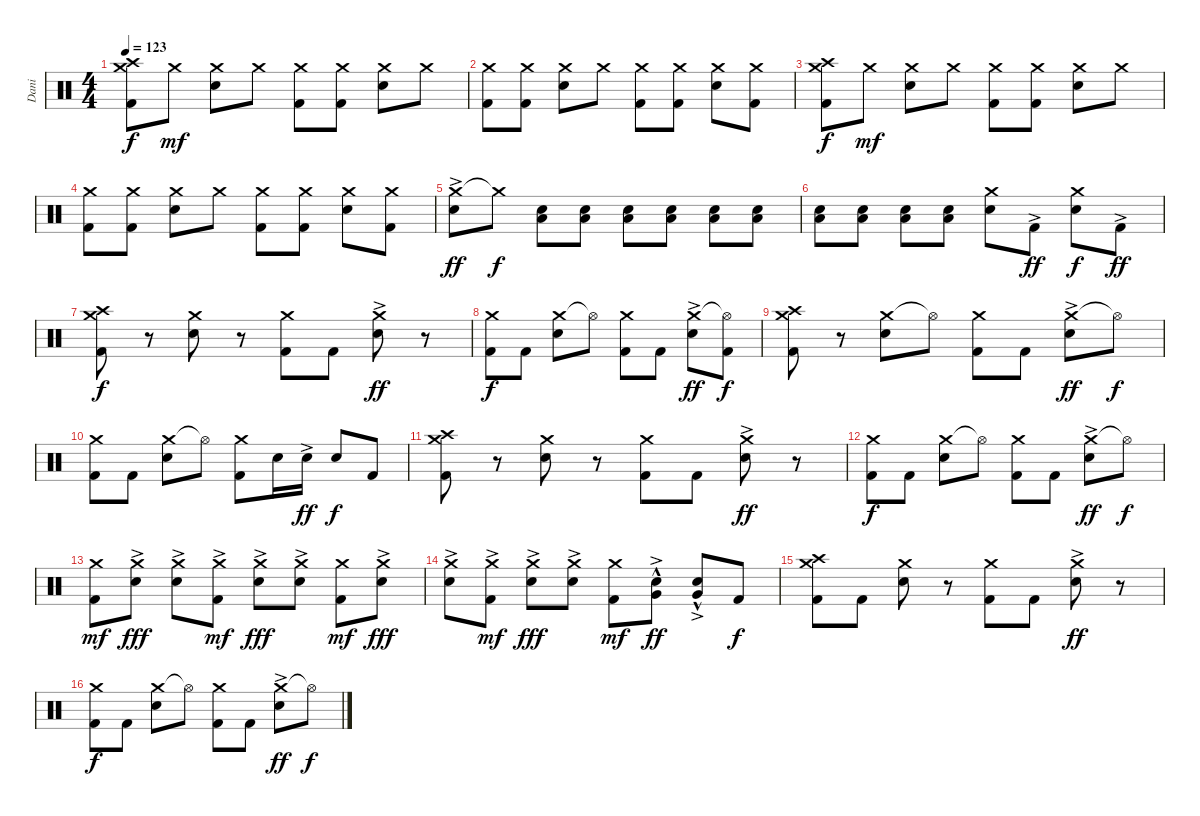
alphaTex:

\track ("Dani" "Dani") {instrument percussion}
\staff {score}
\articulation defaults
\ts (4 4)
\tempo 123
\clef neutral
\ks c
("Crash high (hit)" "Crash medium (hit)" "Kick (hit) 2").8{dy f} "Crash medium (hit)".8{dy mf} ("Crash medium (hit)" "Snare (hit) 2").8 "Crash medium (hit)".8 ("Crash medium (hit)" "Kick (hit) 2").8 ("Crash medium (hit)" "Kick (hit) 2").8 ("Crash medium (hit)" "Snare (hit) 2").8 "Crash medium (hit)".8 |
("Crash medium (hit)" "Kick (hit) 2").8 ("Crash medium (hit)" "Kick (hit) 2").8 ("Crash medium (hit)" "Snare (hit) 2").8 "Crash medium (hit)".8 ("Crash medium (hit)" "Kick (hit) 2").8 ("Crash medium (hit)" "Kick (hit) 2").8 ("Crash medium (hit)" "Snare (hit) 2").8 ("Crash medium (hit)" "Kick (hit) 2").8 |
("Crash high (hit)" "Crash medium (hit)" "Kick (hit) 2").8{dy f} "Crash medium (hit)".8{dy mf} ("Crash medium (hit)" "Snare (hit) 2").8 "Crash medium (hit)".8 ("Crash medium (hit)" "Kick (hit) 2").8 ("Crash medium (hit)" "Kick (hit) 2").8 ("Crash medium (hit)" "Snare (hit) 2").8 "Crash medium (hit)".8 |
("Crash medium (hit)" "Kick (hit) 2").8 ("Crash medium (hit)" "Kick (hit) 2").8 ("Crash medium (hit)" "Snare (hit) 2").8 "Crash medium (hit)".8 ("Crash medium (hit)" "Kick (hit) 2").8 ("Crash medium (hit)" "Kick (hit) 2").8 ("Crash medium (hit)" "Snare (hit) 2").8 ("Crash medium (hit)" "Kick (hit) 2").8 |
("Crash medium (hit)"{ac} "Snare (hit) 2"{ac}).8{dy ff} "Crash medium (hit)"{t}.8{dy f} ("Low Floor Tom (hit)" "Snare (hit) 2").8 ("Low Floor Tom (hit)" "Snare (hit) 2").8 ("Low Floor Tom (hit)" "Snare (hit) 2").8 ("Low Floor Tom (hit)" "Snare (hit) 2").8 ("Low Floor Tom (hit)" "Snare (hit) 2").8 ("Low Floor Tom (hit)" "Snare (hit) 2").8 |
("Low Floor Tom (hit)" "Snare (hit) 2").8 ("Low Floor Tom (hit)" "Snare (hit) 2").8 ("Low Floor Tom (hit)" "Snare (hit) 2").8 ("Low Floor Tom (hit)" "Snare (hit) 2").8 ("Crash medium (hit)" "Snare (hit) 2").8 "Kick (hit) 2"{ac}.8{dy ff} ("Crash medium (hit)" "Snare (hit) 2").8{dy f} "Kick (hit) 2"{ac}.8{dy ff} |
("Crash high (hit)" "Crash medium (hit)" "Kick (hit) 2").8{dy f} r.8 ("Crash medium (hit)" "Snare (hit) 2").8 r.8 ("Crash medium (hit)" "Kick (hit) 2").8 "Kick (hit) 2".8 ("Crash medium (hit)" "Snare (hit) 2"{ac}).8{dy ff} r.8 |
("Crash medium (hit)" "Kick (hit) 2").8{dy f} "Kick (hit) 2".8 ("Crash medium (hit)" "Snare (hit) 2").8 "Hi-Hat (open)"{t}.8 ("Crash medium (hit)" "Kick (hit) 2").8 "Kick (hit) 2".8 ("Crash medium (hit)" "Snare (hit) 2"{ac}).8{dy ff} ("Hi-Hat (open)"{t} "Kick (hit) 2").8{dy f} |
("Crash high (hit)" "Crash medium (hit)" "Kick (hit) 2").8 r.8 ("Crash medium (hit)" "Snare (hit) 2").8 "Hi-Hat (open)"{t}.8 ("Crash medium (hit)" "Kick (hit) 2").8 "Kick (hit) 2".8 ("Crash medium (hit)" "Snare (hit) 2"{ac}).8{dy ff} "Hi-Hat (open)"{t}.8{dy f} |
("Crash medium (hit)" "Kick (hit) 2").8 "Kick (hit) 2".8 ("Crash medium (hit)" "Snare (hit) 2").8 "Hi-Hat (open)"{t}.8 ("Crash medium (hit)" "Kick (hit) 2").8 "Snare (hit) 2".16 "Snare (hit) 2"{ac}.16{dy ff} "Snare (hit) 2".8{dy f} "Kick (hit) 2".8 |
("Crash high (hit)" "Crash medium (hit)" "Kick (hit) 2").8 r.8 ("Crash medium (hit)" "Snare (hit) 2").8 r.8 ("Crash medium (hit)" "Kick (hit) 2").8 "Kick (hit) 2".8 ("Crash medium (hit)" "Snare (hit) 2"{ac}).8{dy ff} r.8 |
("Crash medium (hit)" "Kick (hit) 2").8{dy f} "Kick (hit) 2".8 ("Crash medium (hit)" "Snare (hit) 2").8 "Hi-Hat (open)"{t}.8 ("Crash medium (hit)" "Kick (hit) 2").8 "Kick (hit) 2".8 ("Crash medium (hit)" "Snare (hit) 2"{ac}).8{dy ff} "Hi-Hat (open)"{t}.8{dy f} |
("Crash medium (hit)" "Kick (hit) 2").8{dy mf} ("Crash medium (hit)" "Snare (hit) 2"{ac}).8{dy fff} ("Crash medium (hit)" "Snare (hit) 2"{ac}).8 ("Crash medium (hit)" "Kick (hit) 2"{ac}).8{dy mf} ("Crash medium (hit)" "Snare (hit) 2"{ac}).8{dy fff} ("Crash medium (hit)" "Snare (hit) 2"{ac}).8 ("Crash medium (hit)" "Kick (hit) 2").8{dy mf} ("Crash medium (hit)" "Snare (hit) 2"{ac}).8{dy fff} |
("Crash medium (hit)" "Snare (hit) 2"{ac}).8 ("Crash medium (hit)" "Kick (hit) 2"{ac}).8{dy mf} ("Crash medium (hit)" "Snare (hit) 2"{ac}).8{dy fff} ("Crash medium (hit)" "Snare (hit) 2"{ac}).8 ("Crash medium (hit)" "Kick (hit) 2").8{dy mf} ("Very Low Tom (hit)"{hac} "Snare (hit) 2"{ac}).8{dy ff} ("Very Low Tom (hit)"{hac} "Snare (hit) 2"{ac}).8 "Kick (hit) 2".8{dy f} |
("Crash high (hit)" "Crash medium (hit)" "Kick (hit) 2").8 "Kick (hit) 2".8 ("Crash medium (hit)" "Snare (hit) 2").8 r.8 ("Crash medium (hit)" "Kick (hit) 2").8 "Kick (hit) 2".8 ("Crash medium (hit)" "Snare (hit) 2"{ac}).8{dy ff} r.8 |
("Crash medium (hit)" "Kick (hit) 2").8{dy f} "Kick (hit) 2".8 ("Crash medium (hit)" "Snare (hit) 2").8 "Hi-Hat (open)"{t}.8 ("Crash medium (hit)" "Kick (hit) 2").8 "Kick (hit) 2".8 ("Crash medium (hit)" "Snare (hit) 2"{ac}).8{dy ff} "Hi-Hat (open)"{t}.8{dy f}
